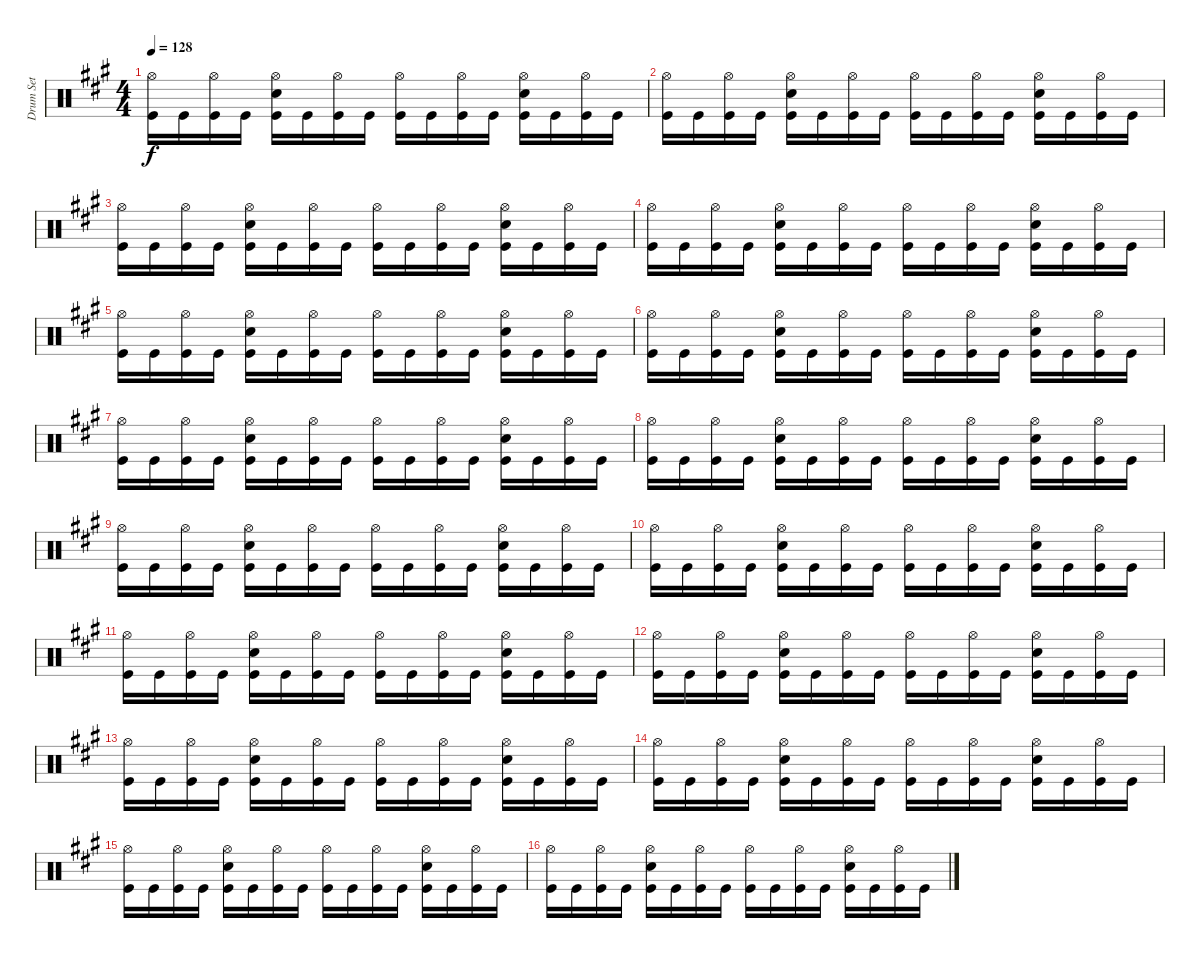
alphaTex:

\track ("Drum Set" "Drum Set") {instrument percussion}
\staff {score}
\articulation defaults
\ts (4 4)
\tempo 128
\clef neutral
\ks a
("Hi-Hat (open)" "Kick (hit)").16{dy f} "Kick (hit)".16 ("Hi-Hat (open)" "Kick (hit)").16 "Kick (hit)".16 ("Electric Snare (hit)" "Hi-Hat (open)" "Kick (hit)").16 "Kick (hit)".16 ("Hi-Hat (open)" "Kick (hit)").16 "Kick (hit)".16 ("Hi-Hat (open)" "Kick (hit)").16 "Kick (hit)".16 ("Hi-Hat (open)" "Kick (hit)").16 "Kick (hit)".16 ("Electric Snare (hit)" "Hi-Hat (open)" "Kick (hit)").16 "Kick (hit)".16 ("Hi-Hat (open)" "Kick (hit)").16 "Kick (hit)".16 |
("Hi-Hat (open)" "Kick (hit)").16 "Kick (hit)".16 ("Hi-Hat (open)" "Kick (hit)").16 "Kick (hit)".16 ("Electric Snare (hit)" "Hi-Hat (open)" "Kick (hit)").16 "Kick (hit)".16 ("Hi-Hat (open)" "Kick (hit)").16 "Kick (hit)".16 ("Hi-Hat (open)" "Kick (hit)").16 "Kick (hit)".16 ("Hi-Hat (open)" "Kick (hit)").16 "Kick (hit)".16 ("Electric Snare (hit)" "Hi-Hat (open)" "Kick (hit)").16 "Kick (hit)".16 ("Hi-Hat (open)" "Kick (hit)").16 "Kick (hit)".16 |
("Hi-Hat (open)" "Kick (hit)").16 "Kick (hit)".16 ("Hi-Hat (open)" "Kick (hit)").16 "Kick (hit)".16 ("Electric Snare (hit)" "Hi-Hat (open)" "Kick (hit)").16 "Kick (hit)".16 ("Hi-Hat (open)" "Kick (hit)").16 "Kick (hit)".16 ("Hi-Hat (open)" "Kick (hit)").16 "Kick (hit)".16 ("Hi-Hat (open)" "Kick (hit)").16 "Kick (hit)".16 ("Electric Snare (hit)" "Hi-Hat (open)" "Kick (hit)").16 "Kick (hit)".16 ("Hi-Hat (open)" "Kick (hit)").16 "Kick (hit)".16 |
("Hi-Hat (open)" "Kick (hit)").16 "Kick (hit)".16 ("Hi-Hat (open)" "Kick (hit)").16 "Kick (hit)".16 ("Electric Snare (hit)" "Hi-Hat (open)" "Kick (hit)").16 "Kick (hit)".16 ("Hi-Hat (open)" "Kick (hit)").16 "Kick (hit)".16 ("Hi-Hat (open)" "Kick (hit)").16 "Kick (hit)".16 ("Hi-Hat (open)" "Kick (hit)").16 "Kick (hit)".16 ("Electric Snare (hit)" "Hi-Hat (open)" "Kick (hit)").16 "Kick (hit)".16 ("Hi-Hat (open)" "Kick (hit)").16 "Kick (hit)".16 |
("Hi-Hat (open)" "Kick (hit)").16 "Kick (hit)".16 ("Hi-Hat (open)" "Kick (hit)").16 "Kick (hit)".16 ("Electric Snare (hit)" "Hi-Hat (open)" "Kick (hit)").16 "Kick (hit)".16 ("Hi-Hat (open)" "Kick (hit)").16 "Kick (hit)".16 ("Hi-Hat (open)" "Kick (hit)").16 "Kick (hit)".16 ("Hi-Hat (open)" "Kick (hit)").16 "Kick (hit)".16 ("Electric Snare (hit)" "Hi-Hat (open)" "Kick (hit)").16 "Kick (hit)".16 ("Hi-Hat (open)" "Kick (hit)").16 "Kick (hit)".16 |
("Hi-Hat (open)" "Kick (hit)").16 "Kick (hit)".16 ("Hi-Hat (open)" "Kick (hit)").16 "Kick (hit)".16 ("Electric Snare (hit)" "Hi-Hat (open)" "Kick (hit)").16 "Kick (hit)".16 ("Hi-Hat (open)" "Kick (hit)").16 "Kick (hit)".16 ("Hi-Hat (open)" "Kick (hit)").16 "Kick (hit)".16 ("Hi-Hat (open)" "Kick (hit)").16 "Kick (hit)".16 ("Electric Snare (hit)" "Hi-Hat (open)" "Kick (hit)").16 "Kick (hit)".16 ("Hi-Hat (open)" "Kick (hit)").16 "Kick (hit)".16 |
("Hi-Hat (open)" "Kick (hit)").16 "Kick (hit)".16 ("Hi-Hat (open)" "Kick (hit)").16 "Kick (hit)".16 ("Electric Snare (hit)" "Hi-Hat (open)" "Kick (hit)").16 "Kick (hit)".16 ("Hi-Hat (open)" "Kick (hit)").16 "Kick (hit)".16 ("Hi-Hat (open)" "Kick (hit)").16 "Kick (hit)".16 ("Hi-Hat (open)" "Kick (hit)").16 "Kick (hit)".16 ("Electric Snare (hit)" "Hi-Hat (open)" "Kick (hit)").16 "Kick (hit)".16 ("Hi-Hat (open)" "Kick (hit)").16 "Kick (hit)".16 |
("Hi-Hat (open)" "Kick (hit)").16 "Kick (hit)".16 ("Hi-Hat (open)" "Kick (hit)").16 "Kick (hit)".16 ("Electric Snare (hit)" "Hi-Hat (open)" "Kick (hit)").16 "Kick (hit)".16 ("Hi-Hat (open)" "Kick (hit)").16 "Kick (hit)".16 ("Hi-Hat (open)" "Kick (hit)").16 "Kick (hit)".16 ("Hi-Hat (open)" "Kick (hit)").16 "Kick (hit)".16 ("Electric Snare (hit)" "Hi-Hat (open)" "Kick (hit)").16 "Kick (hit)".16 ("Hi-Hat (open)" "Kick (hit)").16 "Kick (hit)".16 |
("Hi-Hat (open)" "Kick (hit)").16 "Kick (hit)".16 ("Hi-Hat (open)" "Kick (hit)").16 "Kick (hit)".16 ("Electric Snare (hit)" "Hi-Hat (open)" "Kick (hit)").16 "Kick (hit)".16 ("Hi-Hat (open)" "Kick (hit)").16 "Kick (hit)".16 ("Hi-Hat (open)" "Kick (hit)").16 "Kick (hit)".16 ("Hi-Hat (open)" "Kick (hit)").16 "Kick (hit)".16 ("Electric Snare (hit)" "Hi-Hat (open)" "Kick (hit)").16 "Kick (hit)".16 ("Hi-Hat (open)" "Kick (hit)").16 "Kick (hit)".16 |
("Hi-Hat (open)" "Kick (hit)").16 "Kick (hit)".16 ("Hi-Hat (open)" "Kick (hit)").16 "Kick (hit)".16 ("Electric Snare (hit)" "Hi-Hat (open)" "Kick (hit)").16 "Kick (hit)".16 ("Hi-Hat (open)" "Kick (hit)").16 "Kick (hit)".16 ("Hi-Hat (open)" "Kick (hit)").16 "Kick (hit)".16 ("Hi-Hat (open)" "Kick (hit)").16 "Kick (hit)".16 ("Electric Snare (hit)" "Hi-Hat (open)" "Kick (hit)").16 "Kick (hit)".16 ("Hi-Hat (open)" "Kick (hit)").16 "Kick (hit)".16 |
("Hi-Hat (open)" "Kick (hit)").16 "Kick (hit)".16 ("Hi-Hat (open)" "Kick (hit)").16 "Kick (hit)".16 ("Electric Snare (hit)" "Hi-Hat (open)" "Kick (hit)").16 "Kick (hit)".16 ("Hi-Hat (open)" "Kick (hit)").16 "Kick (hit)".16 ("Hi-Hat (open)" "Kick (hit)").16 "Kick (hit)".16 ("Hi-Hat (open)" "Kick (hit)").16 "Kick (hit)".16 ("Electric Snare (hit)" "Hi-Hat (open)" "Kick (hit)").16 "Kick (hit)".16 ("Hi-Hat (open)" "Kick (hit)").16 "Kick (hit)".16 |
("Hi-Hat (open)" "Kick (hit)").16 "Kick (hit)".16 ("Hi-Hat (open)" "Kick (hit)").16 "Kick (hit)".16 ("Electric Snare (hit)" "Hi-Hat (open)" "Kick (hit)").16 "Kick (hit)".16 ("Hi-Hat (open)" "Kick (hit)").16 "Kick (hit)".16 ("Hi-Hat (open)" "Kick (hit)").16 "Kick (hit)".16 ("Hi-Hat (open)" "Kick (hit)").16 "Kick (hit)".16 ("Electric Snare (hit)" "Hi-Hat (open)" "Kick (hit)").16 "Kick (hit)".16 ("Hi-Hat (open)" "Kick (hit)").16 "Kick (hit)".16 |
("Hi-Hat (open)" "Kick (hit)").16 "Kick (hit)".16 ("Hi-Hat (open)" "Kick (hit)").16 "Kick (hit)".16 ("Electric Snare (hit)" "Hi-Hat (open)" "Kick (hit)").16 "Kick (hit)".16 ("Hi-Hat (open)" "Kick (hit)").16 "Kick (hit)".16 ("Hi-Hat (open)" "Kick (hit)").16 "Kick (hit)".16 ("Hi-Hat (open)" "Kick (hit)").16 "Kick (hit)".16 ("Electric Snare (hit)" "Hi-Hat (open)" "Kick (hit)").16 "Kick (hit)".16 ("Hi-Hat (open)" "Kick (hit)").16 "Kick (hit)".16 |
("Hi-Hat (open)" "Kick (hit)").16 "Kick (hit)".16 ("Hi-Hat (open)" "Kick (hit)").16 "Kick (hit)".16 ("Electric Snare (hit)" "Hi-Hat (open)" "Kick (hit)").16 "Kick (hit)".16 ("Hi-Hat (open)" "Kick (hit)").16 "Kick (hit)".16 ("Hi-Hat (open)" "Kick (hit)").16 "Kick (hit)".16 ("Hi-Hat (open)" "Kick (hit)").16 "Kick (hit)".16 ("Electric Snare (hit)" "Hi-Hat (open)" "Kick (hit)").16 "Kick (hit)".16 ("Hi-Hat (open)" "Kick (hit)").16 "Kick (hit)".16 |
("Hi-Hat (open)" "Kick (hit)").16 "Kick (hit)".16 ("Hi-Hat (open)" "Kick (hit)").16 "Kick (hit)".16 ("Electric Snare (hit)" "Hi-Hat (open)" "Kick (hit)").16 "Kick (hit)".16 ("Hi-Hat (open)" "Kick (hit)").16 "Kick (hit)".16 ("Hi-Hat (open)" "Kick (hit)").16 "Kick (hit)".16 ("Hi-Hat (open)" "Kick (hit)").16 "Kick (hit)".16 ("Electric Snare (hit)" "Hi-Hat (open)" "Kick (hit)").16 "Kick (hit)".16 ("Hi-Hat (open)" "Kick (hit)").16 "Kick (hit)".16 |
("Hi-Hat (open)" "Kick (hit)").16 "Kick (hit)".16 ("Hi-Hat (open)" "Kick (hit)").16 "Kick (hit)".16 ("Electric Snare (hit)" "Hi-Hat (open)" "Kick (hit)").16 "Kick (hit)".16 ("Hi-Hat (open)" "Kick (hit)").16 "Kick (hit)".16 ("Hi-Hat (open)" "Kick (hit)").16 "Kick (hit)".16 ("Hi-Hat (open)" "Kick (hit)").16 "Kick (hit)".16 ("Electric Snare (hit)" "Hi-Hat (open)" "Kick (hit)").16 "Kick (hit)".16 ("Hi-Hat (open)" "Kick (hit)").16 "Kick (hit)".16
